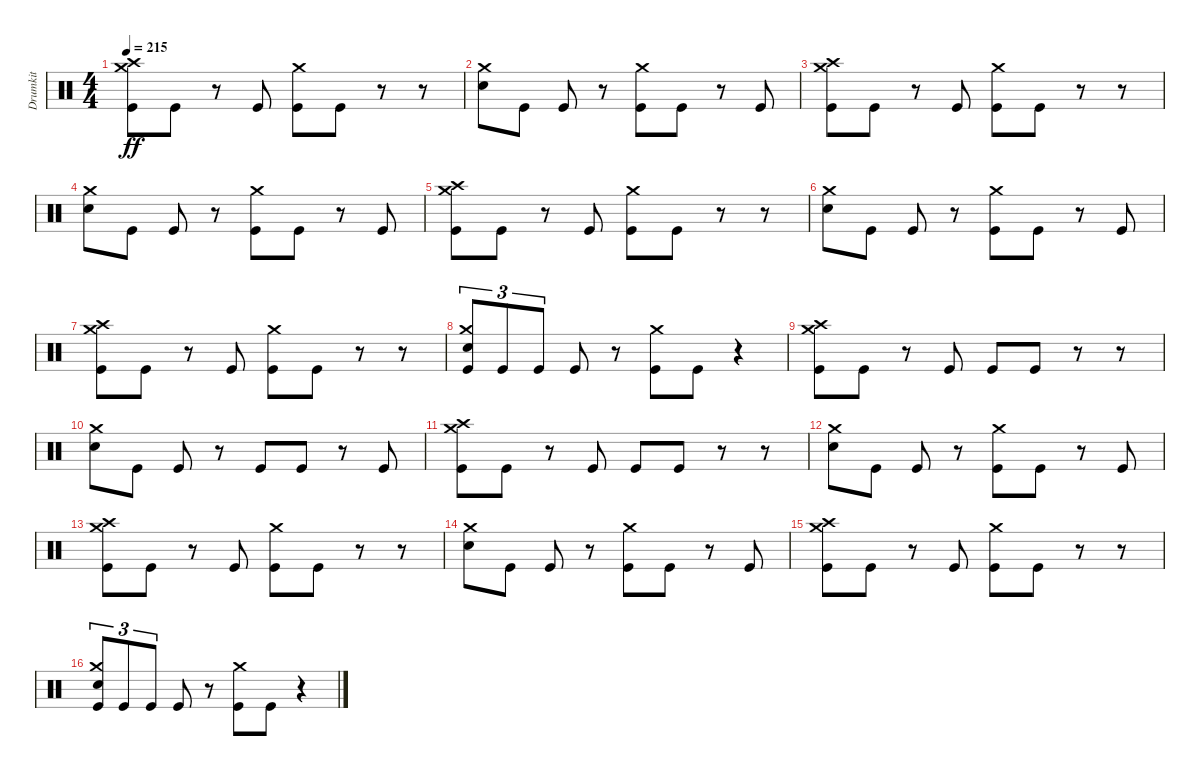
\track ("Drumkit" "Drumkit") {instrument percussion}
\staff {score}
\articulation defaults
\ts (4 4)
\tempo 215
\clef neutral
\ks c
("Kick (hit)" "Crash medium (hit)" "Crash high (hit)").8{dy ff} "Kick (hit)".8 r.8 "Kick (hit)".8 ("Kick (hit)" "Crash medium (hit)").8 "Kick (hit)".8 r.8 r.8 |
("Crash medium (hit)" "Snare (hit) 2").8 "Kick (hit)".8 "Kick (hit)".8 r.8 ("Kick (hit)" "Crash medium (hit)").8 "Kick (hit)".8 r.8 "Kick (hit)".8 |
("Kick (hit)" "Crash medium (hit)" "Crash high (hit)").8 "Kick (hit)".8 r.8 "Kick (hit)".8 ("Kick (hit)" "Crash medium (hit)").8 "Kick (hit)".8 r.8 r.8 |
("Crash medium (hit)" "Snare (hit) 2").8 "Kick (hit)".8 "Kick (hit)".8 r.8 ("Kick (hit)" "Crash medium (hit)").8 "Kick (hit)".8 r.8 "Kick (hit)".8 |
("Kick (hit)" "Crash medium (hit)" "Crash high (hit)").8 "Kick (hit)".8 r.8 "Kick (hit)".8 ("Kick (hit)" "Crash medium (hit)").8 "Kick (hit)".8 r.8 r.8 |
("Crash medium (hit)" "Snare (hit) 2").8 "Kick (hit)".8 "Kick (hit)".8 r.8 ("Kick (hit)" "Crash medium (hit)").8 "Kick (hit)".8 r.8 "Kick (hit)".8 |
("Kick (hit)" "Crash medium (hit)" "Crash high (hit)").8 "Kick (hit)".8 r.8 "Kick (hit)".8 ("Kick (hit)" "Crash medium (hit)").8 "Kick (hit)".8 r.8 r.8 |
("Crash medium (hit)" "Snare (hit) 2" "Kick (hit)").8{tu (3 2)} "Kick (hit)".8{tu (3 2)} "Kick (hit)".8{tu (3 2)} "Kick (hit)".8 r.8 ("Kick (hit)" "Crash medium (hit)").8 "Kick (hit)".8 r.4 |
("Kick (hit)" "Crash medium (hit)" "Crash high (hit)").8 "Kick (hit)".8 r.8 "Kick (hit)".8 "Kick (hit)".8 "Kick (hit)".8 r.8 r.8 |
("Crash medium (hit)" "Snare (hit) 2").8 "Kick (hit)".8 "Kick (hit)".8 r.8 "Kick (hit)".8 "Kick (hit)".8 r.8 "Kick (hit)".8 |
("Kick (hit)" "Crash medium (hit)" "Crash high (hit)").8 "Kick (hit)".8 r.8 "Kick (hit)".8 "Kick (hit)".8 "Kick (hit)".8 r.8 r.8 |
("Crash medium (hit)" "Snare (hit) 2").8 "Kick (hit)".8 "Kick (hit)".8 r.8 ("Kick (hit)" "Crash medium (hit)").8 "Kick (hit)".8 r.8 "Kick (hit)".8 |
("Kick (hit)" "Crash medium (hit)" "Crash high (hit)").8 "Kick (hit)".8 r.8 "Kick (hit)".8 ("Kick (hit)" "Crash medium (hit)").8 "Kick (hit)".8 r.8 r.8 |
("Crash medium (hit)" "Snare (hit) 2").8 "Kick (hit)".8 "Kick (hit)".8 r.8 ("Kick (hit)" "Crash medium (hit)").8 "Kick (hit)".8 r.8 "Kick (hit)".8 |
("Kick (hit)" "Crash medium (hit)" "Crash high (hit)").8 "Kick (hit)".8 r.8 "Kick (hit)".8 ("Kick (hit)" "Crash medium (hit)").8 "Kick (hit)".8 r.8 r.8 |
("Crash medium (hit)" "Snare (hit) 2" "Kick (hit)").8{tu (3 2)} "Kick (hit)".8{tu (3 2)} "Kick (hit)".8{tu (3 2)} "Kick (hit)".8 r.8 ("Kick (hit)" "Crash medium (hit)").8 "Kick (hit)".8 r.4
